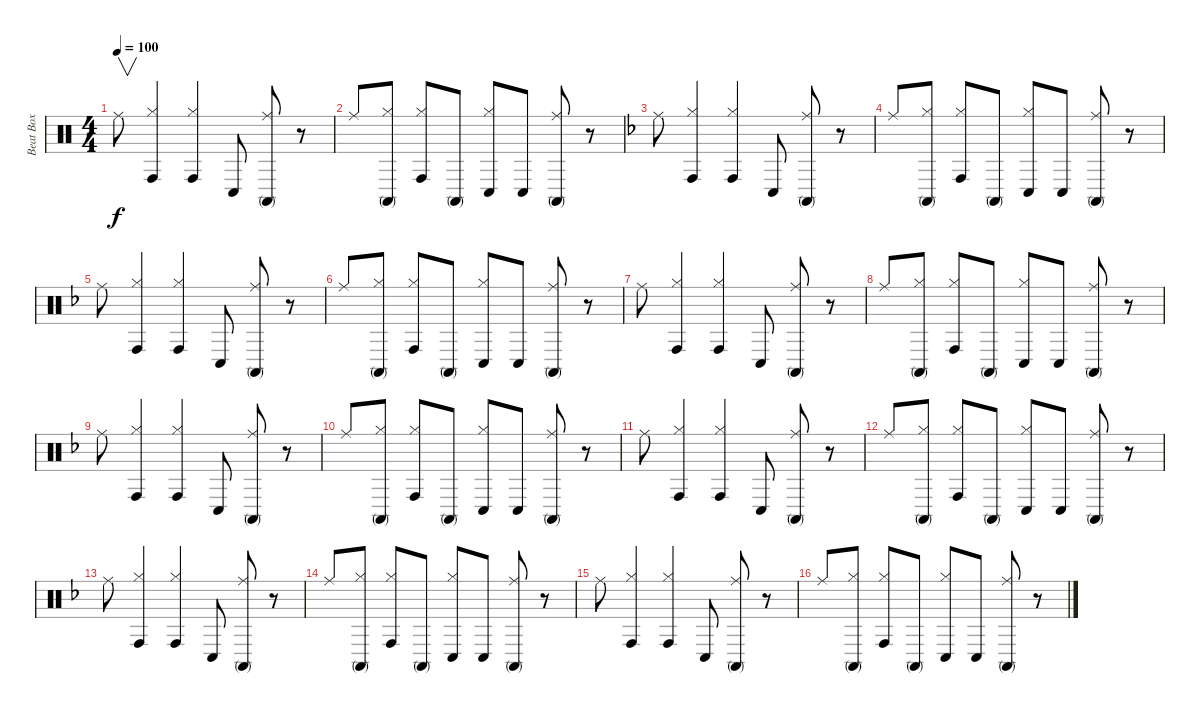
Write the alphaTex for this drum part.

\track ("Beat Box" "Beat Box") {instrument percussion}
\staff {score}
\articulation defaults
\ts (4 4)
\tempo 100
\clef neutral
\ks c "Ride (middle)".8{v dy f}
("Hi-Hat (closed)" "Conga high (hit)").4 ("Hi-Hat (closed)" "Conga high (hit)").4 "Conga low (hit)".8 ("Ride (middle)" "Conga high (mute)").8 r.8 |
"Ride (middle)".8 ("Hi-Hat (closed)" "Conga high (mute)").8 ("Hi-Hat (closed)" "Conga high (hit)").8 "Conga high (mute)".8 ("Hi-Hat (closed)" "Conga low (hit)").8 "Conga low (hit)".8 ("Ride (middle)" "Conga high (mute)").8 r.8 |
\ks dminor "Ride (middle)".8
("Hi-Hat (closed)" "Conga high (hit)").4 ("Hi-Hat (closed)" "Conga high (hit)").4 "Conga low (hit)".8 ("Ride (middle)" "Conga high (mute)").8 r.8 |
"Ride (middle)".8 ("Hi-Hat (closed)" "Conga high (mute)").8 ("Hi-Hat (closed)" "Conga high (hit)").8 "Conga high (mute)".8 ("Hi-Hat (closed)" "Conga low (hit)").8 "Conga low (hit)".8 ("Ride (middle)" "Conga high (mute)").8 r.8 |
"Ride (middle)".8 ("Hi-Hat (closed)" "Conga high (hit)").4 ("Hi-Hat (closed)" "Conga high (hit)").4 "Conga low (hit)".8 ("Ride (middle)" "Conga high (mute)").8 r.8 |
"Ride (middle)".8 ("Hi-Hat (closed)" "Conga high (mute)").8 ("Hi-Hat (closed)" "Conga high (hit)").8 "Conga high (mute)".8 ("Hi-Hat (closed)" "Conga low (hit)").8 "Conga low (hit)".8 ("Ride (middle)" "Conga high (mute)").8 r.8 |
"Ride (middle)".8 ("Hi-Hat (closed)" "Conga high (hit)").4 ("Hi-Hat (closed)" "Conga high (hit)").4 "Conga low (hit)".8 ("Ride (middle)" "Conga high (mute)").8 r.8 |
"Ride (middle)".8 ("Hi-Hat (closed)" "Conga high (mute)").8 ("Hi-Hat (closed)" "Conga high (hit)").8 "Conga high (mute)".8 ("Hi-Hat (closed)" "Conga low (hit)").8 "Conga low (hit)".8 ("Ride (middle)" "Conga high (mute)").8 r.8 |
"Ride (middle)".8 ("Hi-Hat (closed)" "Conga high (hit)").4 ("Hi-Hat (closed)" "Conga high (hit)").4 "Conga low (hit)".8 ("Ride (middle)" "Conga high (mute)").8 r.8 |
"Ride (middle)".8 ("Hi-Hat (closed)" "Conga high (mute)").8 ("Hi-Hat (closed)" "Conga high (hit)").8 "Conga high (mute)".8 ("Hi-Hat (closed)" "Conga low (hit)").8 "Conga low (hit)".8 ("Ride (middle)" "Conga high (mute)").8 r.8 |
"Ride (middle)".8 ("Hi-Hat (closed)" "Conga high (hit)").4 ("Hi-Hat (closed)" "Conga high (hit)").4 "Conga low (hit)".8 ("Ride (middle)" "Conga high (mute)").8 r.8 |
"Ride (middle)".8 ("Hi-Hat (closed)" "Conga high (mute)").8 ("Hi-Hat (closed)" "Conga high (hit)").8 "Conga high (mute)".8 ("Hi-Hat (closed)" "Conga low (hit)").8 "Conga low (hit)".8 ("Ride (middle)" "Conga high (mute)").8 r.8 |
"Ride (middle)".8 ("Hi-Hat (closed)" "Conga high (hit)").4 ("Hi-Hat (closed)" "Conga high (hit)").4 "Conga low (hit)".8 ("Ride (middle)" "Conga high (mute)").8 r.8 |
"Ride (middle)".8 ("Hi-Hat (closed)" "Conga high (mute)").8 ("Hi-Hat (closed)" "Conga high (hit)").8 "Conga high (mute)".8 ("Hi-Hat (closed)" "Conga low (hit)").8 "Conga low (hit)".8 ("Ride (middle)" "Conga high (mute)").8 r.8 |
"Ride (middle)".8 ("Hi-Hat (closed)" "Conga high (hit)").4 ("Hi-Hat (closed)" "Conga high (hit)").4 "Conga low (hit)".8 ("Ride (middle)" "Conga high (mute)").8 r.8 |
"Ride (middle)".8 ("Hi-Hat (closed)" "Conga high (mute)").8 ("Hi-Hat (closed)" "Conga high (hit)").8 "Conga high (mute)".8 ("Hi-Hat (closed)" "Conga low (hit)").8 "Conga low (hit)".8 ("Ride (middle)" "Conga high (mute)").8 r.8
